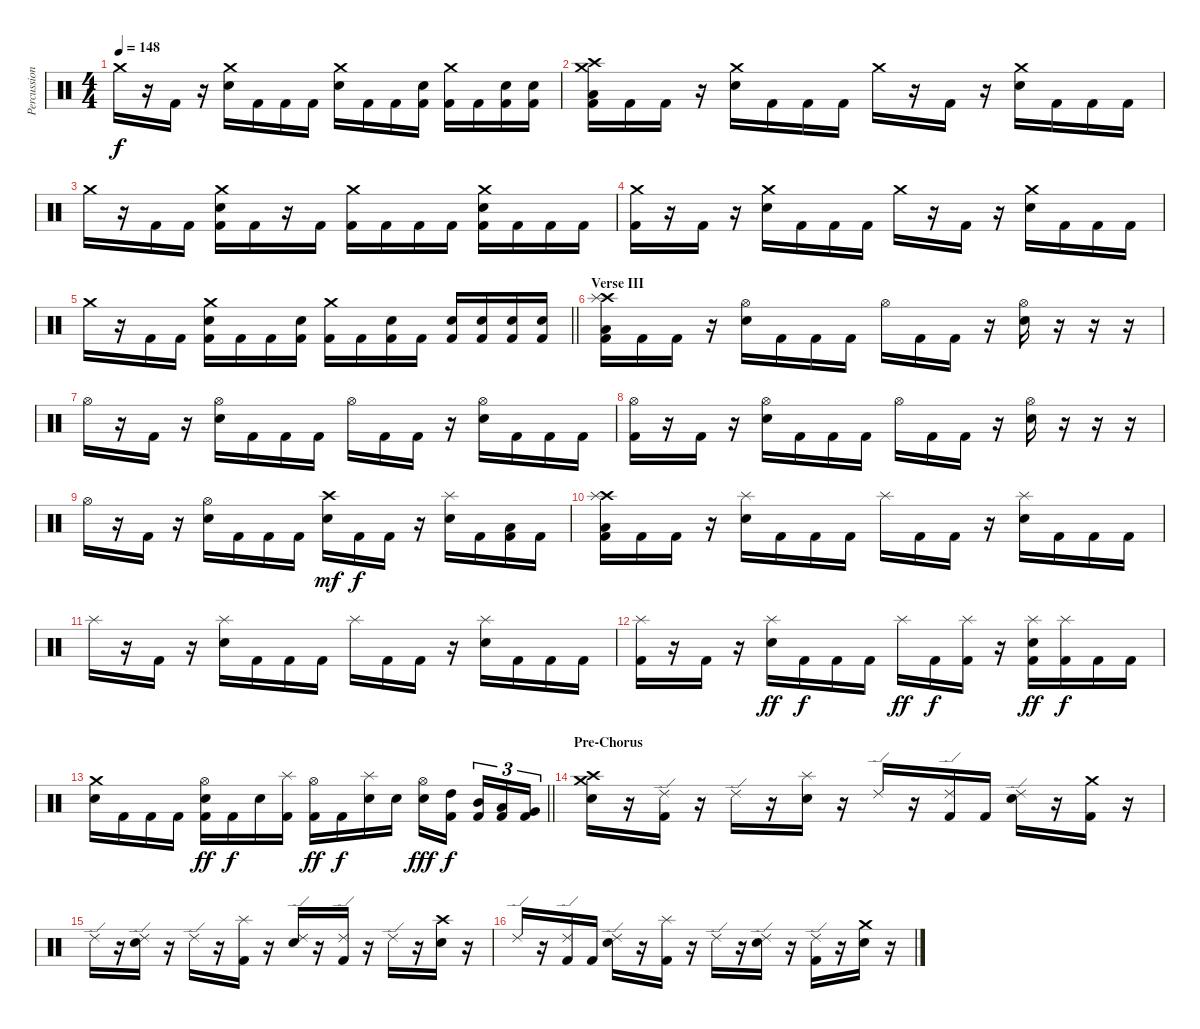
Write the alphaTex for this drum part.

\track ("Percussion" "Percussion") {instrument percussion}
\staff {score}
\articulation defaults
\ts (4 4)
\tempo 148
\clef neutral
\ks c "Crash medium (hit)".16{dy f}
r.16 "Kick (hit) 2".16 r.16 ("Crash medium (hit)" "Electric Snare (hit)").16 "Kick (hit) 2".16 "Kick (hit) 2".16 "Kick (hit) 2".16 ("Crash medium (hit)" "Electric Snare (hit)").16 "Kick (hit) 2".16 "Kick (hit) 2".16 ("Electric Snare (hit)" "Kick (hit) 2").16 ("Crash medium (hit)" "Kick (hit) 2").16 "Kick (hit) 2".16 ("Electric Snare (hit)" "Kick (hit) 2").16 ("Electric Snare (hit)" "Kick (hit) 2").16 |
("Crash high (hit)" "Crash medium (hit)" "Low Floor Tom (hit)" "Kick (hit) 2").16 "Kick (hit) 2".16 "Kick (hit) 2".16 r.16 ("Crash medium (hit)" "Electric Snare (hit)").16 "Kick (hit) 2".16 "Kick (hit) 2".16 "Kick (hit) 2".16 "Crash medium (hit)".16 r.16 "Kick (hit) 2".16 r.16 ("Crash medium (hit)" "Electric Snare (hit)").16 "Kick (hit) 2".16 "Kick (hit) 2".16 "Kick (hit) 2".16 |
"Crash medium (hit)".16 r.16 "Kick (hit) 2".16 "Kick (hit) 2".16 ("Crash medium (hit)" "Electric Snare (hit)" "Kick (hit) 2").16 "Kick (hit) 2".16 r.16 "Kick (hit) 2".16 ("Crash medium (hit)" "Kick (hit) 2").16 "Kick (hit) 2".16 "Kick (hit) 2".16 "Kick (hit) 2".16 ("Crash medium (hit)" "Electric Snare (hit)" "Kick (hit) 2").16 "Kick (hit) 2".16 "Kick (hit) 2".16 "Kick (hit) 2".16 |
("Crash medium (hit)" "Kick (hit) 2").16 r.16 "Kick (hit) 2".16 r.16 ("Crash medium (hit)" "Electric Snare (hit)").16 "Kick (hit) 2".16 "Kick (hit) 2".16 "Kick (hit) 2".16 "Crash medium (hit)".16 r.16 "Kick (hit) 2".16 r.16 ("Crash medium (hit)" "Electric Snare (hit)").16 "Kick (hit) 2".16 "Kick (hit) 2".16 "Kick (hit) 2".16 |
\barLineRight lightlight "Crash medium (hit)".16
r.16 "Kick (hit) 2".16 "Kick (hit) 2".16 ("Crash medium (hit)" "Electric Snare (hit)" "Kick (hit) 2").16 "Kick (hit) 2".16 "Kick (hit) 2".16 ("Electric Snare (hit)" "Kick (hit) 2").16 ("Crash medium (hit)" "Kick (hit) 2").16 "Kick (hit) 2".16 ("Electric Snare (hit)" "Kick (hit) 2").16 "Kick (hit) 2".16 ("Electric Snare (hit)" "Kick (hit) 2").16 ("Electric Snare (hit)" "Kick (hit) 2").16 ("Electric Snare (hit)" "Kick (hit) 2").16 ("Electric Snare (hit)" "Kick (hit) 2").16 |
\section ("" "Verse III")
("Crash high (hit)" "Splash (hit)" "Low Floor Tom (hit)" "Kick (hit) 2").16 "Kick (hit) 2".16 "Kick (hit) 2".16 r.16 ("Hi-Hat (open)" "Electric Snare (hit)").16 "Kick (hit) 2".16 "Kick (hit) 2".16 "Kick (hit) 2".16 "Hi-Hat (open)".16 "Kick (hit) 2".16 "Kick (hit) 2".16 r.16 ("Hi-Hat (open)" "Electric Snare (hit)").16 r.16 r.16 r.16 |
"Hi-Hat (open)".16 r.16 "Kick (hit) 2".16 r.16 ("Hi-Hat (open)" "Electric Snare (hit)").16 "Kick (hit) 2".16 "Kick (hit) 2".16 "Kick (hit) 2".16 "Hi-Hat (open)".16 "Kick (hit) 2".16 "Kick (hit) 2".16 r.16 ("Hi-Hat (open)" "Electric Snare (hit)").16 "Kick (hit) 2".16 "Kick (hit) 2".16 "Kick (hit) 2".16 |
("Hi-Hat (open)" "Kick (hit) 2").16 r.16 "Kick (hit) 2".16 r.16 ("Hi-Hat (open)" "Electric Snare (hit)").16 "Kick (hit) 2".16 "Kick (hit) 2".16 "Kick (hit) 2".16 "Hi-Hat (open)".16 "Kick (hit) 2".16 "Kick (hit) 2".16 r.16 ("Hi-Hat (open)" "Electric Snare (hit)").16 r.16 r.16 r.16 |
"Hi-Hat (open)".16 r.16 "Kick (hit) 2".16 r.16 ("Hi-Hat (open)" "Electric Snare (hit)").16 "Kick (hit) 2".16 "Kick (hit) 2".16 "Kick (hit) 2".16 ("Crash high (hit)" "Electric Snare (hit)").16{dy mf} "Kick (hit) 2".16{dy f} "Kick (hit) 2".16 r.16 ("Splash (hit)" "Electric Snare (hit)").16 "Kick (hit) 2".16 ("Low Tom (hit)" "Kick (hit) 2").16 "Kick (hit) 2".16 |
("Crash high (hit)" "Splash (hit)" "Low Floor Tom (hit)" "Kick (hit) 2").16 "Kick (hit) 2".16 "Kick (hit) 2".16 r.16 ("Splash (hit)" "Electric Snare (hit)").16 "Kick (hit) 2".16 "Kick (hit) 2".16 "Kick (hit) 2".16 "Splash (hit)".16 "Kick (hit) 2".16 "Kick (hit) 2".16 r.16 ("Splash (hit)" "Electric Snare (hit)").16 "Kick (hit) 2".16 "Kick (hit) 2".16 "Kick (hit) 2".16 |
"Splash (hit)".16 r.16 "Kick (hit) 2".16 r.16 ("Splash (hit)" "Electric Snare (hit)").16 "Kick (hit) 2".16 "Kick (hit) 2".16 "Kick (hit) 2".16 "Splash (hit)".16 "Kick (hit) 2".16 "Kick (hit) 2".16 r.16 ("Splash (hit)" "Electric Snare (hit)").16 "Kick (hit) 2".16 "Kick (hit) 2".16 "Kick (hit) 2".16 |
("Splash (hit)" "Kick (hit) 2").16 r.16 "Kick (hit) 2".16 r.16 ("Splash (hit)" "Electric Snare (hit)").16{dy ff} "Kick (hit) 2".16{dy f} "Kick (hit) 2".16 "Kick (hit) 2".16 "Splash (hit)".16{dy ff} "Kick (hit) 2".16{dy f} ("Splash (hit)" "Kick (hit) 2").16 r.16 ("Splash (hit)" "Electric Snare (hit)" "Kick (hit) 2").16{dy ff} ("Splash (hit)" "Kick (hit) 2").16{dy f} "Kick (hit) 2".16 "Kick (hit) 2".16 |
\barLineRight lightlight
("Crash medium (hit)" "Electric Snare (hit)").16 "Kick (hit) 2".16 "Kick (hit) 2".16 "Kick (hit) 2".16 ("Hi-Hat (open)" "Electric Snare (hit)" "Kick (hit) 2").16{dy ff} "Kick (hit) 2".16{dy f} "Electric Snare (hit)".16 ("Splash (hit)" "Kick (hit) 2").16 ("Hi-Hat (open)" "Kick (hit) 2").16{dy ff} "Kick (hit) 2".16{dy f} ("Splash (hit)" "Electric Snare (hit)").16 "Electric Snare (hit)".16 ("Hi-Hat (open)" "Electric Snare (hit)").16{dy fff} ("High Tom (hit)" "Kick (hit) 2").16{dy f beam splitsecondary} ("Mid Tom (hit)" "Kick (hit) 2").16{tu (3 2)} ("Low Tom (hit)" "Kick (hit) 2").16{tu (3 2)} ("Very Low Tom (hit)" "Kick (hit) 2").16{tu (3 2)} |
\section ("" "Pre-Chorus")
("Crash medium (hit)" "Crash high (hit)" "Electric Snare (hit)").16 r.16 ("Ride (edge) 2" "Kick (hit) 2").16 r.16 "Ride (edge) 2".16 r.16 ("Splash (hit)" "Electric Snare (hit)").16 r.16 "Ride (edge) 2".16 r.16 ("Ride (edge) 2" "Kick (hit) 2").16 "Kick (hit) 2".16 ("Ride (edge) 2" "Electric Snare (hit)").16 r.16 ("Crash medium (hit)" "Kick (hit) 2").16 r.16 |
"Ride (edge) 2".16 r.16 ("Ride (edge) 2" "Electric Snare (hit)").16 r.16 "Ride (edge) 2".16 r.16 ("Splash (hit)" "Kick (hit) 2").16 r.16 ("Ride (edge) 2" "Electric Snare (hit)").16 r.16 ("Ride (edge) 2" "Kick (hit) 2").16 r.16 "Ride (edge) 2".16 r.16 ("Crash high (hit)" "Electric Snare (hit)").16 r.16 |
"Ride (edge) 2".16 r.16 ("Ride (edge) 2" "Kick (hit) 2").16 "Kick (hit) 2".16 ("Ride (edge) 2" "Electric Snare (hit)").16 r.16 ("Splash (hit)" "Kick (hit) 2").16 r.16 "Ride (edge) 2".16 r.16 ("Ride (edge) 2" "Electric Snare (hit)").16 r.16 ("Ride (edge) 2" "Kick (hit) 2").16 r.16 ("Crash medium (hit)" "Electric Snare (hit)").16 r.16
